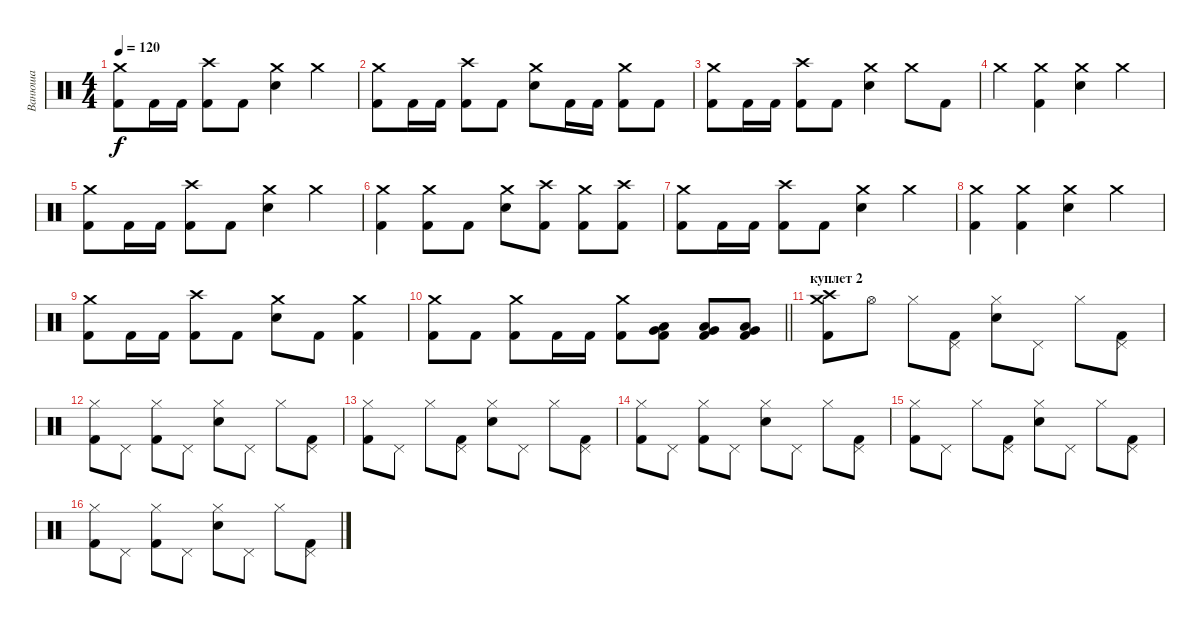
\track ("Ванюша" "Ванюша") {instrument percussion}
\staff {score}
\articulation defaults
\ts (4 4)
\tempo 120
\clef neutral
\ks c
("Crash medium (hit)" "Kick (hit) 2").8{dy f} "Kick (hit) 2".16 "Kick (hit) 2".16 ("Crash high (hit)" "Kick (hit) 2").8 "Kick (hit) 2".8 ("Crash medium (hit)" "Snare (hit) 2").4 "Crash medium (hit)".4 |
("Crash medium (hit)" "Kick (hit) 2").8 "Kick (hit) 2".16 "Kick (hit) 2".16 ("Crash high (hit)" "Kick (hit) 2").8 "Kick (hit) 2".8 ("Crash medium (hit)" "Snare (hit) 2").8 "Kick (hit) 2".16 "Kick (hit) 2".16 ("Crash medium (hit)" "Kick (hit) 2").8 "Kick (hit) 2".8 |
("Crash medium (hit)" "Kick (hit) 2").8 "Kick (hit) 2".16 "Kick (hit) 2".16 ("Crash high (hit)" "Kick (hit) 2").8 "Kick (hit) 2".8 ("Crash medium (hit)" "Snare (hit) 2").4 "Crash medium (hit)".8 "Kick (hit) 2".8 |
"Crash medium (hit)".4 ("Crash medium (hit)" "Kick (hit) 2").4 ("Crash medium (hit)" "Snare (hit) 2").4 "Crash medium (hit)".4 |
("Crash medium (hit)" "Kick (hit) 2").8 "Kick (hit) 2".16 "Kick (hit) 2".16 ("Crash high (hit)" "Kick (hit) 2").8 "Kick (hit) 2".8 ("Crash medium (hit)" "Snare (hit) 2").4 "Crash medium (hit)".4 |
("Crash medium (hit)" "Kick (hit) 2").4 ("Crash medium (hit)" "Kick (hit) 2").8 "Kick (hit) 2".8 ("Crash medium (hit)" "Snare (hit) 2").8 ("Crash high (hit)" "Kick (hit) 2").8 ("Crash medium (hit)" "Kick (hit) 2").8 ("Crash high (hit)" "Kick (hit) 2").8 |
("Crash medium (hit)" "Kick (hit) 2").8 "Kick (hit) 2".16 "Kick (hit) 2".16 ("Crash high (hit)" "Kick (hit) 2").8 "Kick (hit) 2".8 ("Crash medium (hit)" "Snare (hit) 2").4 "Crash medium (hit)".4 |
("Crash medium (hit)" "Kick (hit) 2").4 ("Crash medium (hit)" "Kick (hit) 2").4 ("Crash medium (hit)" "Snare (hit) 2").4 "Crash medium (hit)".4 |
("Crash medium (hit)" "Kick (hit) 2").8 "Kick (hit) 2".16 "Kick (hit) 2".16 ("Crash high (hit)" "Kick (hit) 2").8 "Kick (hit) 2".8 ("Crash medium (hit)" "Snare (hit) 2").8 "Kick (hit) 2".8 ("Crash medium (hit)" "Kick (hit) 2").4 |
\barLineRight lightlight
("Crash medium (hit)" "Kick (hit) 2").8 "Kick (hit) 2".8 ("Crash medium (hit)" "Kick (hit) 2").8 "Kick (hit) 2".16 "Kick (hit) 2".16 ("Crash medium (hit)" "Kick (hit) 2").8 ("Low Tom (hit)" "Very Low Tom (hit)" "Kick (hit) 2").8 ("Low Tom (hit)" "Very Low Tom (hit)" "Kick (hit) 2").8 ("Low Tom (hit)" "Very Low Tom (hit)" "Kick (hit) 2").8 |
\section ("" "куплет 2")
("Crash medium (hit)" "Crash high (hit)" "Kick (hit) 2").8 "Hi-Hat (open)".8 "Hi-Hat (closed)".8 ("Pedal Hi-Hat (hit)" "Kick (hit) 2").8 ("Hi-Hat (closed)" "Snare (hit) 2").8 "Pedal Hi-Hat (hit)".8 "Hi-Hat (closed)".8 ("Pedal Hi-Hat (hit)" "Kick (hit) 2").8 |
("Hi-Hat (closed)" "Kick (hit) 2").8 "Pedal Hi-Hat (hit)".8 ("Hi-Hat (closed)" "Kick (hit) 2").8 "Pedal Hi-Hat (hit)".8 ("Hi-Hat (closed)" "Snare (hit) 2").8 "Pedal Hi-Hat (hit)".8 "Hi-Hat (closed)".8 ("Pedal Hi-Hat (hit)" "Kick (hit) 2").8 |
("Hi-Hat (closed)" "Kick (hit) 2").8 "Pedal Hi-Hat (hit)".8 "Hi-Hat (closed)".8 ("Pedal Hi-Hat (hit)" "Kick (hit) 2").8 ("Hi-Hat (closed)" "Snare (hit) 2").8 "Pedal Hi-Hat (hit)".8 "Hi-Hat (closed)".8 ("Pedal Hi-Hat (hit)" "Kick (hit) 2").8 |
("Hi-Hat (closed)" "Kick (hit) 2").8 "Pedal Hi-Hat (hit)".8 ("Hi-Hat (closed)" "Kick (hit) 2").8 "Pedal Hi-Hat (hit)".8 ("Hi-Hat (closed)" "Snare (hit) 2").8 "Pedal Hi-Hat (hit)".8 "Hi-Hat (closed)".8 ("Pedal Hi-Hat (hit)" "Kick (hit) 2").8 |
("Hi-Hat (closed)" "Kick (hit) 2").8 "Pedal Hi-Hat (hit)".8 "Hi-Hat (closed)".8 ("Pedal Hi-Hat (hit)" "Kick (hit) 2").8 ("Hi-Hat (closed)" "Snare (hit) 2").8 "Pedal Hi-Hat (hit)".8 "Hi-Hat (closed)".8 ("Pedal Hi-Hat (hit)" "Kick (hit) 2").8 |
("Hi-Hat (closed)" "Kick (hit) 2").8 "Pedal Hi-Hat (hit)".8 ("Hi-Hat (closed)" "Kick (hit) 2").8 "Pedal Hi-Hat (hit)".8 ("Hi-Hat (closed)" "Snare (hit) 2").8 "Pedal Hi-Hat (hit)".8 "Hi-Hat (closed)".8 ("Pedal Hi-Hat (hit)" "Kick (hit) 2").8
